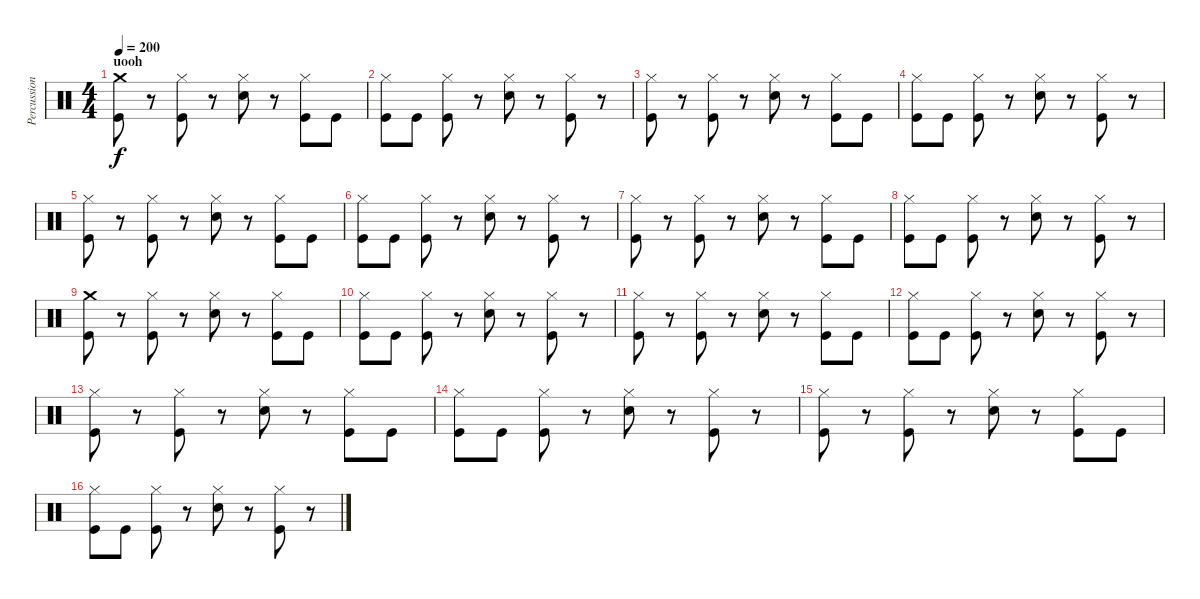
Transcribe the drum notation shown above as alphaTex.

\track ("Percussion" "Percussion") {instrument percussion}
\staff {score}
\articulation defaults
\ts (4 4)
\section ("" "uooh")
\tempo 200
\clef neutral
\ks c
("Crash medium (hit)" "Kick (hit)").8{dy f} r.8 ("Hi-Hat (closed)" "Kick (hit)").8 r.8 ("Hi-Hat (closed)" "Snare (hit) 2").8 r.8 ("Hi-Hat (closed)" "Kick (hit)").8 "Kick (hit)".8 |
("Hi-Hat (closed)" "Kick (hit)").8 "Kick (hit)".8 ("Hi-Hat (closed)" "Kick (hit)").8 r.8 ("Hi-Hat (closed)" "Snare (hit) 2").8 r.8 ("Hi-Hat (closed)" "Kick (hit)").8 r.8 |
("Hi-Hat (closed)" "Kick (hit)").8 r.8 ("Hi-Hat (closed)" "Kick (hit)").8 r.8 ("Hi-Hat (closed)" "Snare (hit) 2").8 r.8 ("Hi-Hat (closed)" "Kick (hit)").8 "Kick (hit)".8 |
("Hi-Hat (closed)" "Kick (hit)").8 "Kick (hit)".8 ("Hi-Hat (closed)" "Kick (hit)").8 r.8 ("Hi-Hat (closed)" "Snare (hit) 2").8 r.8 ("Hi-Hat (closed)" "Kick (hit)").8 r.8 |
("Hi-Hat (closed)" "Kick (hit)").8 r.8 ("Hi-Hat (closed)" "Kick (hit)").8 r.8 ("Hi-Hat (closed)" "Snare (hit) 2").8 r.8 ("Hi-Hat (closed)" "Kick (hit)").8 "Kick (hit)".8 |
("Hi-Hat (closed)" "Kick (hit)").8 "Kick (hit)".8 ("Hi-Hat (closed)" "Kick (hit)").8 r.8 ("Hi-Hat (closed)" "Snare (hit) 2").8 r.8 ("Hi-Hat (closed)" "Kick (hit)").8 r.8 |
("Hi-Hat (closed)" "Kick (hit)").8 r.8 ("Hi-Hat (closed)" "Kick (hit)").8 r.8 ("Hi-Hat (closed)" "Snare (hit) 2").8 r.8 ("Hi-Hat (closed)" "Kick (hit)").8 "Kick (hit)".8 |
("Hi-Hat (closed)" "Kick (hit)").8 "Kick (hit)".8 ("Hi-Hat (closed)" "Kick (hit)").8 r.8 ("Hi-Hat (closed)" "Snare (hit) 2").8 r.8 ("Hi-Hat (closed)" "Kick (hit)").8 r.8 |
("Crash medium (hit)" "Kick (hit)").8 r.8 ("Hi-Hat (closed)" "Kick (hit)").8 r.8 ("Hi-Hat (closed)" "Snare (hit) 2").8 r.8 ("Hi-Hat (closed)" "Kick (hit)").8 "Kick (hit)".8 |
("Hi-Hat (closed)" "Kick (hit)").8 "Kick (hit)".8 ("Hi-Hat (closed)" "Kick (hit)").8 r.8 ("Hi-Hat (closed)" "Snare (hit) 2").8 r.8 ("Hi-Hat (closed)" "Kick (hit)").8 r.8 |
("Hi-Hat (closed)" "Kick (hit)").8 r.8 ("Hi-Hat (closed)" "Kick (hit)").8 r.8 ("Hi-Hat (closed)" "Snare (hit) 2").8 r.8 ("Hi-Hat (closed)" "Kick (hit)").8 "Kick (hit)".8 |
("Hi-Hat (closed)" "Kick (hit)").8 "Kick (hit)".8 ("Hi-Hat (closed)" "Kick (hit)").8 r.8 ("Hi-Hat (closed)" "Snare (hit) 2").8 r.8 ("Hi-Hat (closed)" "Kick (hit)").8 r.8 |
("Hi-Hat (closed)" "Kick (hit)").8 r.8 ("Hi-Hat (closed)" "Kick (hit)").8 r.8 ("Hi-Hat (closed)" "Snare (hit) 2").8 r.8 ("Hi-Hat (closed)" "Kick (hit)").8 "Kick (hit)".8 |
("Hi-Hat (closed)" "Kick (hit)").8 "Kick (hit)".8 ("Hi-Hat (closed)" "Kick (hit)").8 r.8 ("Hi-Hat (closed)" "Snare (hit) 2").8 r.8 ("Hi-Hat (closed)" "Kick (hit)").8 r.8 |
("Hi-Hat (closed)" "Kick (hit)").8 r.8 ("Hi-Hat (closed)" "Kick (hit)").8 r.8 ("Hi-Hat (closed)" "Snare (hit) 2").8 r.8 ("Hi-Hat (closed)" "Kick (hit)").8 "Kick (hit)".8 |
("Hi-Hat (closed)" "Kick (hit)").8 "Kick (hit)".8 ("Hi-Hat (closed)" "Kick (hit)").8 r.8 ("Hi-Hat (closed)" "Snare (hit) 2").8 r.8 ("Hi-Hat (closed)" "Kick (hit)").8 r.8
